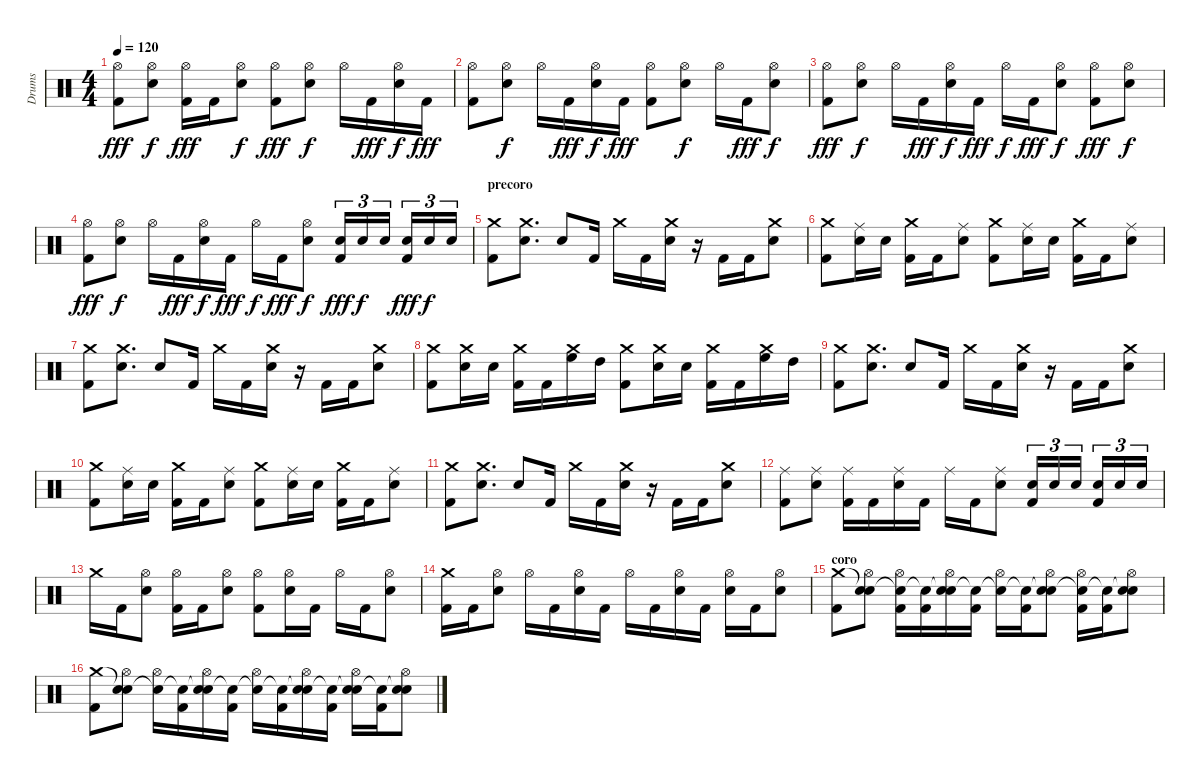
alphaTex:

\track ("Drums" "Drums") {instrument percussion}
\staff {score}
\articulation defaults
\ts (4 4)
\tempo 120
\clef neutral
\ks c
("Hi-Hat (open)" "Kick (hit) 2").8{dy fff} ("Hi-Hat (open)" "Electric Snare (hit)").8{dy f} ("Hi-Hat (open)" "Kick (hit) 2").16{dy fff} "Kick (hit) 2".16 ("Hi-Hat (open)" "Electric Snare (hit)").8{dy f} ("Hi-Hat (open)" "Kick (hit) 2").8{dy fff} ("Hi-Hat (open)" "Electric Snare (hit)").8{dy f} "Hi-Hat (open)".16 "Kick (hit) 2".16{dy fff} ("Hi-Hat (open)" "Electric Snare (hit)").16{dy f} "Kick (hit) 2".16{dy fff} |
("Hi-Hat (open)" "Kick (hit) 2").8 ("Hi-Hat (open)" "Electric Snare (hit)").8{dy f} "Hi-Hat (open)".16 "Kick (hit) 2".16{dy fff} ("Hi-Hat (open)" "Electric Snare (hit)").16{dy f} "Kick (hit) 2".16{dy fff} ("Hi-Hat (open)" "Kick (hit) 2").8 ("Hi-Hat (open)" "Electric Snare (hit)").8{dy f} "Hi-Hat (open)".16 "Kick (hit) 2".16{dy fff} ("Hi-Hat (open)" "Electric Snare (hit)").8{dy f} |
("Hi-Hat (open)" "Kick (hit) 2").8{dy fff} ("Hi-Hat (open)" "Electric Snare (hit)").8{dy f} "Hi-Hat (open)".16 "Kick (hit) 2".16{dy fff} ("Hi-Hat (open)" "Electric Snare (hit)").16{dy f} "Kick (hit) 2".16{dy fff} "Hi-Hat (open)".16{dy f} "Kick (hit) 2".16{dy fff} ("Hi-Hat (open)" "Electric Snare (hit)").8{dy f} ("Hi-Hat (open)" "Kick (hit) 2").8{dy fff} ("Hi-Hat (open)" "Electric Snare (hit)").8{dy f} |
("Hi-Hat (open)" "Kick (hit) 2").8{dy fff} ("Hi-Hat (open)" "Electric Snare (hit)").8{dy f} "Hi-Hat (open)".16 "Kick (hit) 2".16{dy fff} ("Hi-Hat (open)" "Electric Snare (hit)").16{dy f} "Kick (hit) 2".16{dy fff} "Hi-Hat (open)".16{dy f} "Kick (hit) 2".16{dy fff} ("Hi-Hat (open)" "Electric Snare (hit)").8{dy f} ("Electric Snare (hit)" "Kick (hit) 2").16{tu (3 2) dy fff} "Electric Snare (hit)".16{tu (3 2) dy f} "Electric Snare (hit)".16{tu (3 2)} ("Electric Snare (hit)" "Kick (hit) 2").16{tu (3 2) dy fff} "Electric Snare (hit)".16{tu (3 2) dy f} "Electric Snare (hit)".16{tu (3 2)} |
\section ("" "precoro")
("Crash medium (hit)" "Kick (hit) 2").8 ("Crash medium (hit)" "Electric Snare (hit)").8{d} "Electric Snare (hit)".8 "Kick (hit) 2".16 "Crash medium (hit)".16 "Kick (hit) 2".16 ("Crash medium (hit)" "Electric Snare (hit)").16 r.16 "Kick (hit) 2".16 "Kick (hit) 2".16 ("Crash medium (hit)" "Electric Snare (hit)").8 |
("Crash medium (hit)" "Kick (hit) 2").8 ("Ride (middle)" "Electric Snare (hit)").16 "Electric Snare (hit)".16 ("Crash medium (hit)" "Kick (hit) 2").16 "Kick (hit) 2".16 ("Ride (middle)" "Electric Snare (hit)").8 ("Crash medium (hit)" "Kick (hit) 2").8 ("Ride (middle)" "Electric Snare (hit)").16 "Electric Snare (hit)".16 ("Crash medium (hit)" "Kick (hit) 2").16 "Kick (hit) 2".16 ("Ride (middle)" "Electric Snare (hit)").8 |
("Crash medium (hit)" "Kick (hit) 2").8 ("Crash medium (hit)" "Electric Snare (hit)").8{d} "Electric Snare (hit)".8 "Kick (hit) 2".16 "Crash medium (hit)".16 "Kick (hit) 2".16 ("Crash medium (hit)" "Electric Snare (hit)").16 r.16 "Kick (hit) 2".16 "Kick (hit) 2".16 ("Crash medium (hit)" "Electric Snare (hit)").8 |
("Crash medium (hit)" "Kick (hit) 2").8 ("Crash medium (hit)" "Electric Snare (hit)").16 "Electric Snare (hit)".16 ("Crash medium (hit)" "Kick (hit) 2").16 "Kick (hit) 2".16 ("Crash medium (hit)" "High Floor Tom (hit)").16 "High Tom (hit)".16 ("Crash medium (hit)" "Kick (hit) 2").8 ("Crash medium (hit)" "Electric Snare (hit)").16 "Electric Snare (hit)".16 ("Crash medium (hit)" "Kick (hit) 2").16 "Kick (hit) 2".16 ("Crash medium (hit)" "High Floor Tom (hit)").16 "High Tom (hit)".16 |
("Crash medium (hit)" "Kick (hit) 2").8 ("Crash medium (hit)" "Electric Snare (hit)").8{d} "Electric Snare (hit)".8 "Kick (hit) 2".16 "Crash medium (hit)".16 "Kick (hit) 2".16 ("Crash medium (hit)" "Electric Snare (hit)").16 r.16 "Kick (hit) 2".16 "Kick (hit) 2".16 ("Crash medium (hit)" "Electric Snare (hit)").8 |
("Crash medium (hit)" "Kick (hit) 2").8 ("Ride (middle)" "Electric Snare (hit)").16 "Electric Snare (hit)".16 ("Crash medium (hit)" "Kick (hit) 2").16 "Kick (hit) 2".16 ("Ride (middle)" "Electric Snare (hit)").8 ("Crash medium (hit)" "Kick (hit) 2").8 ("Ride (middle)" "Electric Snare (hit)").16 "Electric Snare (hit)".16 ("Crash medium (hit)" "Kick (hit) 2").16 "Kick (hit) 2".16 ("Ride (middle)" "Electric Snare (hit)").8 |
("Crash medium (hit)" "Kick (hit) 2").8 ("Crash medium (hit)" "Electric Snare (hit)").8{d} "Electric Snare (hit)".8 "Kick (hit) 2".16 "Crash medium (hit)".16 "Kick (hit) 2".16 ("Crash medium (hit)" "Electric Snare (hit)").16 r.16 "Kick (hit) 2".16 "Kick (hit) 2".16 ("Crash medium (hit)" "Electric Snare (hit)").8 |
("Ride (middle)" "Kick (hit) 2").8 ("Ride (middle)" "Electric Snare (hit)").8 ("Ride (middle)" "Kick (hit) 2").16 "Kick (hit) 2".16 ("Ride (middle)" "Electric Snare (hit)").16 "Kick (hit) 2".16 "Ride (middle)".16 "Kick (hit) 2".16 ("Ride (middle)" "Electric Snare (hit)").8 ("Electric Snare (hit)" "Kick (hit) 2").16{tu (3 2)} "Electric Snare (hit)".16{tu (3 2)} "Electric Snare (hit)".16{tu (3 2)} ("Electric Snare (hit)" "Kick (hit) 2").16{tu (3 2)} "Electric Snare (hit)".16{tu (3 2)} "Electric Snare (hit)".16{tu (3 2)} |
"Crash medium (hit)".16 "Kick (hit) 2".16 ("Hi-Hat (open)" "Electric Snare (hit)").8 ("Hi-Hat (open)" "Kick (hit) 2").16 "Kick (hit) 2".16 ("Hi-Hat (open)" "Electric Snare (hit)").8 ("Hi-Hat (open)" "Kick (hit) 2").8 ("Hi-Hat (open)" "Electric Snare (hit)").16 "Kick (hit) 2".16 "Hi-Hat (open)".16 "Kick (hit) 2".16 ("Hi-Hat (open)" "Electric Snare (hit)").8 |
("Crash medium (hit)" "Kick (hit) 2").16 "Kick (hit) 2".16 ("Hi-Hat (open)" "Electric Snare (hit)").8 "Hi-Hat (open)".16 "Kick (hit) 2".16 ("Hi-Hat (open)" "Electric Snare (hit)").16 "Kick (hit) 2".16 "Hi-Hat (open)".16 "Kick (hit) 2".16 ("Hi-Hat (open)" "Electric Snare (hit)").16 "Kick (hit) 2".16 ("Hi-Hat (open)" "Electric Snare (hit)").16 "Kick (hit) 2".16 ("Hi-Hat (open)" "Electric Snare (hit)").8 |
\section ("" "coro")
("Crash medium (hit)" "Kick (hit) 2").8 ("Snare (hit)"{t} "Hi-Hat (open)" "Electric Snare (hit)").8 ("Snare (hit)"{t} "Hi-Hat (open)" "Kick (hit) 2").16 ("Snare (hit)"{t} "Kick (hit) 2").16 ("Snare (hit)"{t} "Hi-Hat (open)" "Electric Snare (hit)").16 ("Snare (hit)"{t} "Kick (hit) 2").16 ("Snare (hit)"{t} "Hi-Hat (open)").16 ("Snare (hit)"{t} "Kick (hit) 2").16 ("Snare (hit)"{t} "Hi-Hat (open)" "Electric Snare (hit)").8 ("Snare (hit)"{t} "Hi-Hat (open)" "Kick (hit) 2").16 ("Snare (hit)"{t} "Kick (hit) 2").16 ("Snare (hit)"{t} "Hi-Hat (open)" "Electric Snare (hit)").8 |
("Crash medium (hit)" "Kick (hit) 2").8 ("Snare (hit)"{t} "Hi-Hat (open)" "Electric Snare (hit)").8 ("Snare (hit)"{t} "Hi-Hat (open)").16 ("Snare (hit)"{t} "Kick (hit) 2").16 ("Snare (hit)"{t} "Hi-Hat (open)" "Electric Snare (hit)").16 ("Snare (hit)"{t} "Kick (hit) 2").16 ("Snare (hit)"{t} "Hi-Hat (open)").16 ("Snare (hit)"{t} "Kick (hit) 2").16 ("Snare (hit)"{t} "Hi-Hat (open)" "Electric Snare (hit)").16 ("Snare (hit)"{t} "Kick (hit) 2").16 ("Snare (hit)"{t} "Hi-Hat (open)" "Electric Snare (hit)").16 ("Snare (hit)"{t} "Kick (hit) 2").16 ("Snare (hit)"{t} "Hi-Hat (open)" "Electric Snare (hit)").8
